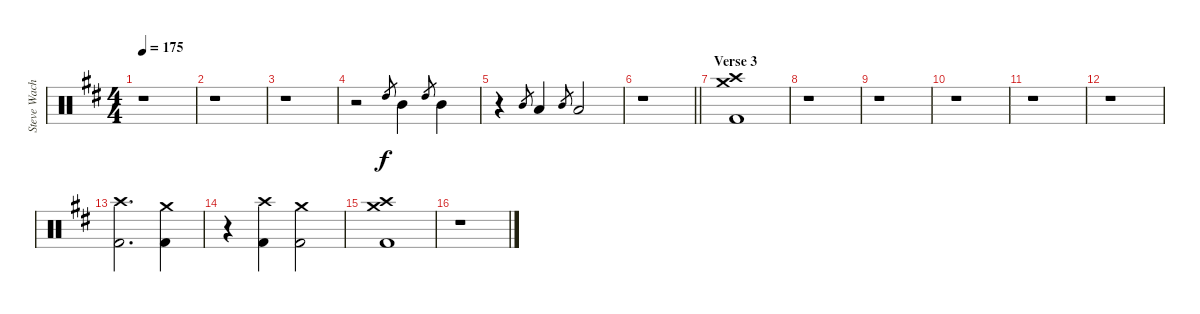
\track ("Steve Wacholz" "Steve Wach") {instrument percussion}
\staff {score}
\articulation defaults
\ts (4 4)
\tempo 175
\clef neutral
\ks bminor
r.1{dy f} |
r.1 |
r.1 |
r.2 "High Tom (hit)".8{gr} "Mid Tom (hit)".4 "High Tom (hit)".8{gr} "Mid Tom (hit)".4 |
r.4 "Mid Tom (hit)".8{gr} "Low Tom (hit)".4 "Mid Tom (hit)".8{gr} "Low Tom (hit)".2 |
\barLineRight lightlight
r.1 |
\section ("" "Verse 3")
("Crash high (hit)" "Crash medium (hit)" "Kick (hit) 2").1 |
r.1 |
r.1 |
r.1 |
r.1 |
r.1 |
("Crash high (hit)" "Kick (hit) 2").2{d} ("Crash medium (hit)" "Kick (hit) 2").4 |
r.4 ("Crash high (hit)" "Kick (hit) 2").4 ("Crash medium (hit)" "Kick (hit) 2").2 |
("Crash high (hit)" "Crash medium (hit)" "Kick (hit) 2").1 |
r.1
